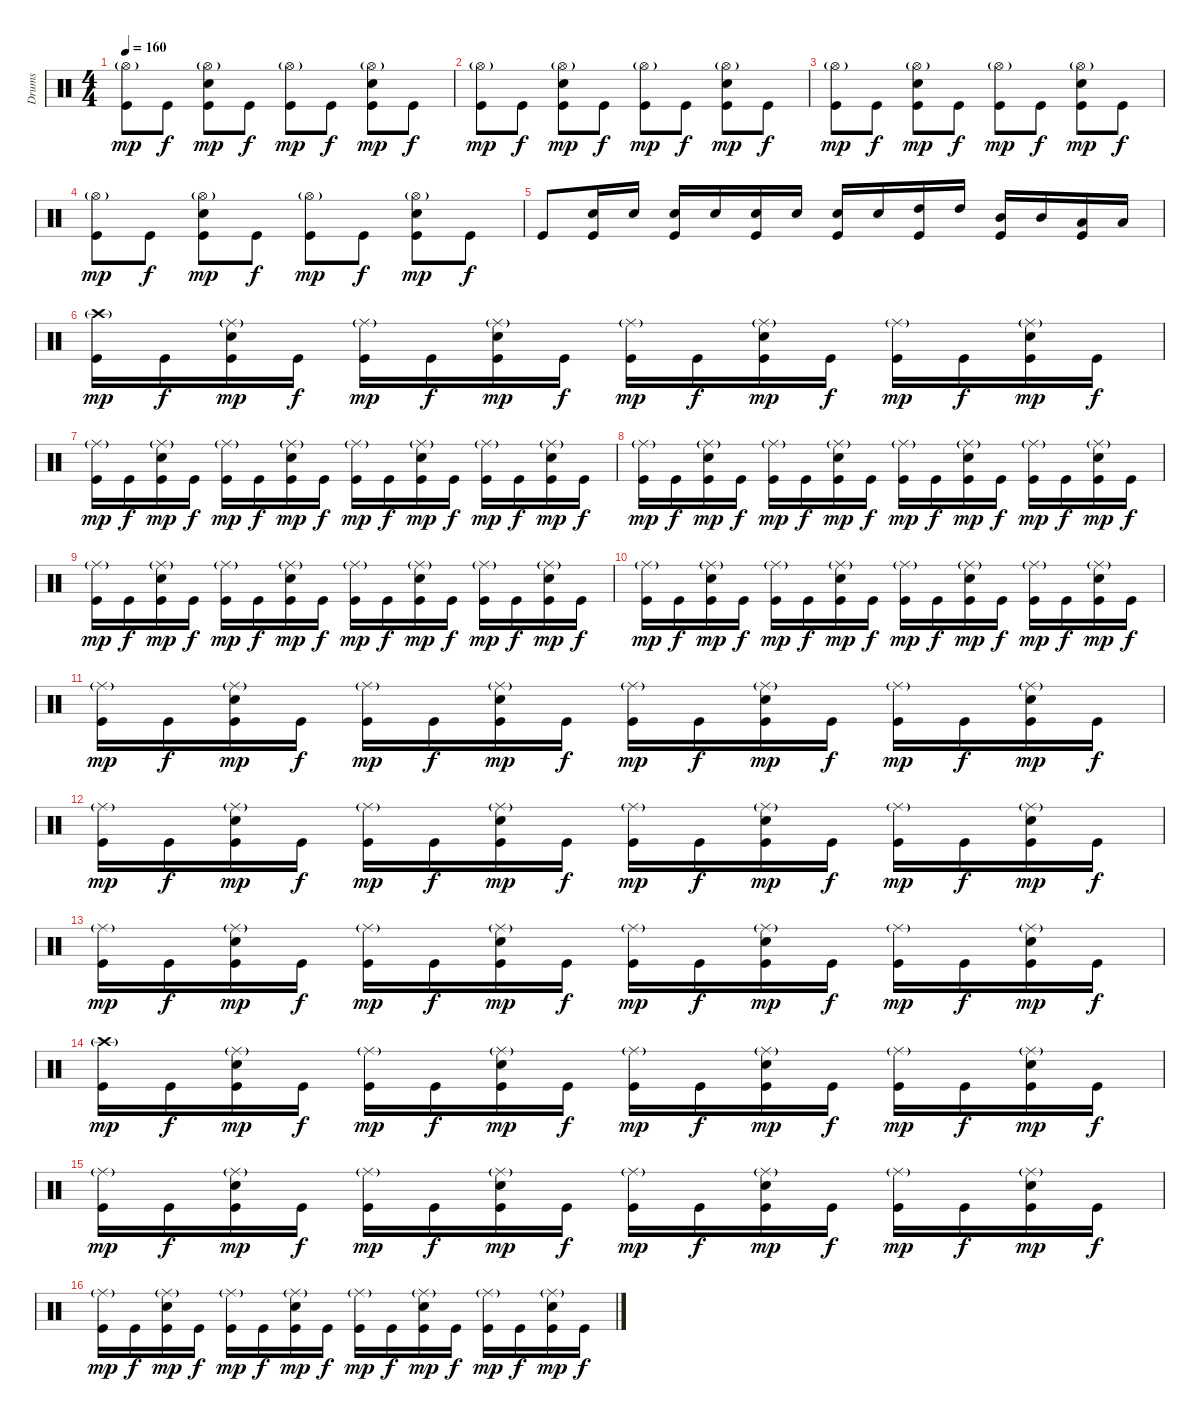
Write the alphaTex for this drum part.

\track ("Drums" "Drums") {instrument percussion}
\staff {score}
\articulation defaults
\ts (4 4)
\tempo 160
\clef neutral
\ks c
("Hi-Hat (open)"{g} "Kick (hit)").8{dy mp} "Kick (hit)".8{dy f} ("Hi-Hat (open)"{g} "Snare (hit) 2" "Kick (hit)").8{dy mp} "Kick (hit)".8{dy f} ("Hi-Hat (open)"{g} "Kick (hit)").8{dy mp} "Kick (hit)".8{dy f} ("Hi-Hat (open)"{g} "Snare (hit) 2" "Kick (hit)").8{dy mp} "Kick (hit)".8{dy f} |
("Hi-Hat (open)"{g} "Kick (hit)").8{dy mp} "Kick (hit)".8{dy f} ("Hi-Hat (open)"{g} "Snare (hit) 2" "Kick (hit)").8{dy mp} "Kick (hit)".8{dy f} ("Hi-Hat (open)"{g} "Kick (hit)").8{dy mp} "Kick (hit)".8{dy f} ("Hi-Hat (open)"{g} "Snare (hit) 2" "Kick (hit)").8{dy mp} "Kick (hit)".8{dy f} |
("Hi-Hat (open)"{g} "Kick (hit)").8{dy mp} "Kick (hit)".8{dy f} ("Hi-Hat (open)"{g} "Snare (hit) 2" "Kick (hit)").8{dy mp} "Kick (hit)".8{dy f} ("Hi-Hat (open)"{g} "Kick (hit)").8{dy mp} "Kick (hit)".8{dy f} ("Hi-Hat (open)"{g} "Snare (hit) 2" "Kick (hit)").8{dy mp} "Kick (hit)".8{dy f} |
("Hi-Hat (open)"{g} "Kick (hit)").8{dy mp} "Kick (hit)".8{dy f} ("Hi-Hat (open)"{g} "Snare (hit) 2" "Kick (hit)").8{dy mp} "Kick (hit)".8{dy f} ("Hi-Hat (open)"{g} "Kick (hit)").8{dy mp} "Kick (hit)".8{dy f} ("Hi-Hat (open)"{g} "Snare (hit) 2" "Kick (hit)").8{dy mp} "Kick (hit)".8{dy f} |
"Kick (hit)".8 ("Electric Snare (hit)" "Kick (hit)").16 "Electric Snare (hit)".16 ("Electric Snare (hit)" "Kick (hit)").16 "Electric Snare (hit)".16 ("Electric Snare (hit)" "Kick (hit)").16 "Electric Snare (hit)".16 ("Snare (hit) 2" "Kick (hit)").16 "Snare (hit) 2".16 ("High Tom (hit)" "Kick (hit)").16 "High Tom (hit)".16 ("Mid Tom (hit)" "Kick (hit)").16 "Mid Tom (hit)".16 ("Low Tom (hit)" "Kick (hit)").16 "Low Tom (hit)".16 |
("Crash high (hit)"{g} "Kick (hit)").16{dy mp} "Kick (hit)".16{dy f} ("Ride (middle)"{g} "Snare (hit) 2" "Kick (hit)").16{dy mp} "Kick (hit)".16{dy f} ("Ride (middle)"{g} "Kick (hit)").16{dy mp} "Kick (hit)".16{dy f} ("Ride (middle)"{g} "Snare (hit) 2" "Kick (hit)").16{dy mp} "Kick (hit)".16{dy f} ("Ride (middle)"{g} "Kick (hit)").16{dy mp} "Kick (hit)".16{dy f} ("Ride (middle)"{g} "Snare (hit) 2" "Kick (hit)").16{dy mp} "Kick (hit)".16{dy f} ("Ride (middle)"{g} "Kick (hit)").16{dy mp} "Kick (hit)".16{dy f} ("Ride (middle)"{g} "Snare (hit) 2" "Kick (hit)").16{dy mp} "Kick (hit)".16{dy f} |
("Ride (middle)"{g} "Kick (hit)").16{dy mp} "Kick (hit)".16{dy f} ("Ride (middle)"{g} "Snare (hit) 2" "Kick (hit)").16{dy mp} "Kick (hit)".16{dy f} ("Ride (middle)"{g} "Kick (hit)").16{dy mp} "Kick (hit)".16{dy f} ("Ride (middle)"{g} "Snare (hit) 2" "Kick (hit)").16{dy mp} "Kick (hit)".16{dy f} ("Ride (middle)"{g} "Kick (hit)").16{dy mp} "Kick (hit)".16{dy f} ("Ride (middle)"{g} "Snare (hit) 2" "Kick (hit)").16{dy mp} "Kick (hit)".16{dy f} ("Ride (middle)"{g} "Kick (hit)").16{dy mp} "Kick (hit)".16{dy f} ("Ride (middle)"{g} "Snare (hit) 2" "Kick (hit)").16{dy mp} "Kick (hit)".16{dy f} |
("Ride (middle)"{g} "Kick (hit)").16{dy mp} "Kick (hit)".16{dy f} ("Ride (middle)"{g} "Snare (hit) 2" "Kick (hit)").16{dy mp} "Kick (hit)".16{dy f} ("Ride (middle)"{g} "Kick (hit)").16{dy mp} "Kick (hit)".16{dy f} ("Ride (middle)"{g} "Snare (hit) 2" "Kick (hit)").16{dy mp} "Kick (hit)".16{dy f} ("Ride (middle)"{g} "Kick (hit)").16{dy mp} "Kick (hit)".16{dy f} ("Ride (middle)"{g} "Snare (hit) 2" "Kick (hit)").16{dy mp} "Kick (hit)".16{dy f} ("Ride (middle)"{g} "Kick (hit)").16{dy mp} "Kick (hit)".16{dy f} ("Ride (middle)"{g} "Snare (hit) 2" "Kick (hit)").16{dy mp} "Kick (hit)".16{dy f} |
("Ride (middle)"{g} "Kick (hit)").16{dy mp} "Kick (hit)".16{dy f} ("Ride (middle)"{g} "Snare (hit) 2" "Kick (hit)").16{dy mp} "Kick (hit)".16{dy f} ("Ride (middle)"{g} "Kick (hit)").16{dy mp} "Kick (hit)".16{dy f} ("Ride (middle)"{g} "Snare (hit) 2" "Kick (hit)").16{dy mp} "Kick (hit)".16{dy f} ("Ride (middle)"{g} "Kick (hit)").16{dy mp} "Kick (hit)".16{dy f} ("Ride (middle)"{g} "Snare (hit) 2" "Kick (hit)").16{dy mp} "Kick (hit)".16{dy f} ("Ride (middle)"{g} "Kick (hit)").16{dy mp} "Kick (hit)".16{dy f} ("Ride (middle)"{g} "Snare (hit) 2" "Kick (hit)").16{dy mp} "Kick (hit)".16{dy f} |
("Ride (middle)"{g} "Kick (hit)").16{dy mp} "Kick (hit)".16{dy f} ("Ride (middle)"{g} "Snare (hit) 2" "Kick (hit)").16{dy mp} "Kick (hit)".16{dy f} ("Ride (middle)"{g} "Kick (hit)").16{dy mp} "Kick (hit)".16{dy f} ("Ride (middle)"{g} "Snare (hit) 2" "Kick (hit)").16{dy mp} "Kick (hit)".16{dy f} ("Ride (middle)"{g} "Kick (hit)").16{dy mp} "Kick (hit)".16{dy f} ("Ride (middle)"{g} "Snare (hit) 2" "Kick (hit)").16{dy mp} "Kick (hit)".16{dy f} ("Ride (middle)"{g} "Kick (hit)").16{dy mp} "Kick (hit)".16{dy f} ("Ride (middle)"{g} "Snare (hit) 2" "Kick (hit)").16{dy mp} "Kick (hit)".16{dy f} |
("Ride (middle)"{g} "Kick (hit)").16{dy mp} "Kick (hit)".16{dy f} ("Ride (middle)"{g} "Snare (hit) 2" "Kick (hit)").16{dy mp} "Kick (hit)".16{dy f} ("Ride (middle)"{g} "Kick (hit)").16{dy mp} "Kick (hit)".16{dy f} ("Ride (middle)"{g} "Snare (hit) 2" "Kick (hit)").16{dy mp} "Kick (hit)".16{dy f} ("Ride (middle)"{g} "Kick (hit)").16{dy mp} "Kick (hit)".16{dy f} ("Ride (middle)"{g} "Snare (hit) 2" "Kick (hit)").16{dy mp} "Kick (hit)".16{dy f} ("Ride (middle)"{g} "Kick (hit)").16{dy mp} "Kick (hit)".16{dy f} ("Ride (middle)"{g} "Snare (hit) 2" "Kick (hit)").16{dy mp} "Kick (hit)".16{dy f} |
("Ride (middle)"{g} "Kick (hit)").16{dy mp} "Kick (hit)".16{dy f} ("Ride (middle)"{g} "Snare (hit) 2" "Kick (hit)").16{dy mp} "Kick (hit)".16{dy f} ("Ride (middle)"{g} "Kick (hit)").16{dy mp} "Kick (hit)".16{dy f} ("Ride (middle)"{g} "Snare (hit) 2" "Kick (hit)").16{dy mp} "Kick (hit)".16{dy f} ("Ride (middle)"{g} "Kick (hit)").16{dy mp} "Kick (hit)".16{dy f} ("Ride (middle)"{g} "Snare (hit) 2" "Kick (hit)").16{dy mp} "Kick (hit)".16{dy f} ("Ride (middle)"{g} "Kick (hit)").16{dy mp} "Kick (hit)".16{dy f} ("Ride (middle)"{g} "Snare (hit) 2" "Kick (hit)").16{dy mp} "Kick (hit)".16{dy f} |
("Ride (middle)"{g} "Kick (hit)").16{dy mp} "Kick (hit)".16{dy f} ("Ride (middle)"{g} "Snare (hit) 2" "Kick (hit)").16{dy mp} "Kick (hit)".16{dy f} ("Ride (middle)"{g} "Kick (hit)").16{dy mp} "Kick (hit)".16{dy f} ("Ride (middle)"{g} "Snare (hit) 2" "Kick (hit)").16{dy mp} "Kick (hit)".16{dy f} ("Ride (middle)"{g} "Kick (hit)").16{dy mp} "Kick (hit)".16{dy f} ("Ride (middle)"{g} "Snare (hit) 2" "Kick (hit)").16{dy mp} "Kick (hit)".16{dy f} ("Ride (middle)"{g} "Kick (hit)").16{dy mp} "Kick (hit)".16{dy f} ("Ride (middle)"{g} "Snare (hit) 2" "Kick (hit)").16{dy mp} "Kick (hit)".16{dy f} |
("Crash high (hit)"{g} "Kick (hit)").16{dy mp} "Kick (hit)".16{dy f} ("Ride (middle)"{g} "Snare (hit) 2" "Kick (hit)").16{dy mp} "Kick (hit)".16{dy f} ("Ride (middle)"{g} "Kick (hit)").16{dy mp} "Kick (hit)".16{dy f} ("Ride (middle)"{g} "Snare (hit) 2" "Kick (hit)").16{dy mp} "Kick (hit)".16{dy f} ("Ride (middle)"{g} "Kick (hit)").16{dy mp} "Kick (hit)".16{dy f} ("Ride (middle)"{g} "Snare (hit) 2" "Kick (hit)").16{dy mp} "Kick (hit)".16{dy f} ("Ride (middle)"{g} "Kick (hit)").16{dy mp} "Kick (hit)".16{dy f} ("Ride (middle)"{g} "Snare (hit) 2" "Kick (hit)").16{dy mp} "Kick (hit)".16{dy f} |
("Ride (middle)"{g} "Kick (hit)").16{dy mp} "Kick (hit)".16{dy f} ("Ride (middle)"{g} "Snare (hit) 2" "Kick (hit)").16{dy mp} "Kick (hit)".16{dy f} ("Ride (middle)"{g} "Kick (hit)").16{dy mp} "Kick (hit)".16{dy f} ("Ride (middle)"{g} "Snare (hit) 2" "Kick (hit)").16{dy mp} "Kick (hit)".16{dy f} ("Ride (middle)"{g} "Kick (hit)").16{dy mp} "Kick (hit)".16{dy f} ("Ride (middle)"{g} "Snare (hit) 2" "Kick (hit)").16{dy mp} "Kick (hit)".16{dy f} ("Ride (middle)"{g} "Kick (hit)").16{dy mp} "Kick (hit)".16{dy f} ("Ride (middle)"{g} "Snare (hit) 2" "Kick (hit)").16{dy mp} "Kick (hit)".16{dy f} |
("Ride (middle)"{g} "Kick (hit)").16{dy mp} "Kick (hit)".16{dy f} ("Ride (middle)"{g} "Snare (hit) 2" "Kick (hit)").16{dy mp} "Kick (hit)".16{dy f} ("Ride (middle)"{g} "Kick (hit)").16{dy mp} "Kick (hit)".16{dy f} ("Ride (middle)"{g} "Snare (hit) 2" "Kick (hit)").16{dy mp} "Kick (hit)".16{dy f} ("Ride (middle)"{g} "Kick (hit)").16{dy mp} "Kick (hit)".16{dy f} ("Ride (middle)"{g} "Snare (hit) 2" "Kick (hit)").16{dy mp} "Kick (hit)".16{dy f} ("Ride (middle)"{g} "Kick (hit)").16{dy mp} "Kick (hit)".16{dy f} ("Ride (middle)"{g} "Snare (hit) 2" "Kick (hit)").16{dy mp} "Kick (hit)".16{dy f}
